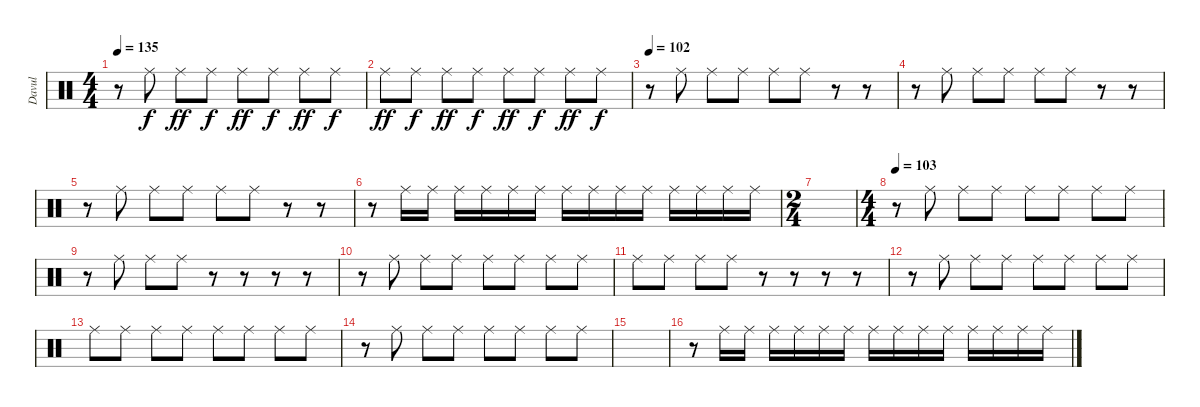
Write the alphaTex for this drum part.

\track ("Davul" "Davul") {instrument percussion}
\staff {score}
\articulation defaults
\ts (4 4)
\tempo 135
\clef neutral
\ks c
r.8{dy f} "Ride (middle)".8 "Ride (middle)".8{dy ff} "Ride (middle)".8{dy f} "Ride (middle)".8{dy ff} "Ride (middle)".8{dy f} "Ride (middle)".8{dy ff} "Ride (middle)".8{dy f} |
"Ride (middle)".8{dy ff} "Ride (middle)".8{dy f} "Ride (middle)".8{dy ff} "Ride (middle)".8{dy f} "Ride (middle)".8{dy ff} "Ride (middle)".8{dy f} "Ride (middle)".8{dy ff} "Ride (middle)".8{dy f} |
\section ("" "")
\tempo 102
r.8 "Ride (middle)".8 "Ride (middle)".8 "Ride (middle)".8 "Ride (middle)".8 "Ride (middle)".8 r.8 r.8 |
r.8 "Ride (middle)".8 "Ride (middle)".8 "Ride (middle)".8 "Ride (middle)".8 "Ride (middle)".8 r.8 r.8 |
r.8 "Ride (middle)".8 "Ride (middle)".8 "Ride (middle)".8 "Ride (middle)".8 "Ride (middle)".8 r.8 r.8 |
r.8 "Ride (middle)".16 "Ride (middle)".16 "Ride (middle)".16 "Ride (middle)".16 "Ride (middle)".16 "Ride (middle)".16 "Ride (middle)".16 "Ride (middle)".16 "Ride (middle)".16 "Ride (middle)".16 "Ride (middle)".16 "Ride (middle)".16 "Ride (middle)".16 "Ride (middle)".16 |
\ts (2 4)
|
\ts (4 4)
\section ("" "")
\tempo 103
r.8 "Ride (middle)".8 "Ride (middle)".8 "Ride (middle)".8 "Ride (middle)".8 "Ride (middle)".8 "Ride (middle)".8 "Ride (middle)".8 |
r.8 "Ride (middle)".8 "Ride (middle)".8 "Ride (middle)".8 r.8 r.8 r.8 r.8 |
r.8 "Ride (middle)".8 "Ride (middle)".8 "Ride (middle)".8 "Ride (middle)".8 "Ride (middle)".8 "Ride (middle)".8 "Ride (middle)".8 |
"Ride (middle)".8 "Ride (middle)".8 "Ride (middle)".8 "Ride (middle)".8 r.8 r.8 r.8 r.8 |
r.8 "Ride (middle)".8 "Ride (middle)".8 "Ride (middle)".8 "Ride (middle)".8 "Ride (middle)".8 "Ride (middle)".8 "Ride (middle)".8 |
"Ride (middle)".8 "Ride (middle)".8 "Ride (middle)".8 "Ride (middle)".8 "Ride (middle)".8 "Ride (middle)".8 "Ride (middle)".8 "Ride (middle)".8 |
r.8 "Ride (middle)".8 "Ride (middle)".8 "Ride (middle)".8 "Ride (middle)".8 "Ride (middle)".8 "Ride (middle)".8 "Ride (middle)".8 |
|
\section ("" "")
r.8 "Ride (middle)".16 "Ride (middle)".16 "Ride (middle)".16 "Ride (middle)".16 "Ride (middle)".16 "Ride (middle)".16 "Ride (middle)".16 "Ride (middle)".16 "Ride (middle)".16 "Ride (middle)".16 "Ride (middle)".16 "Ride (middle)".16 "Ride (middle)".16 "Ride (middle)".16
